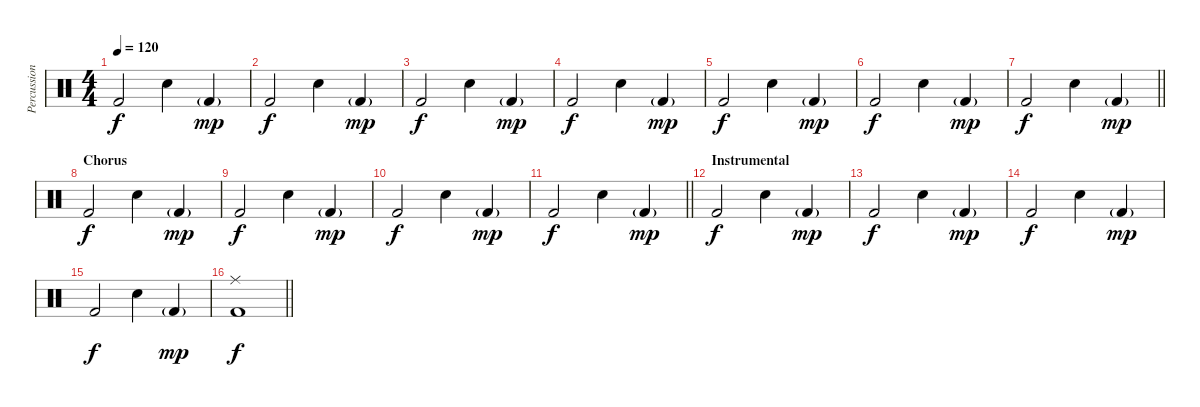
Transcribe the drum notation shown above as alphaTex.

\track ("Percussion" "Percussion") {instrument percussion}
\staff {score}
\articulation defaults
\ts (4 4)
\tempo 120
\clef neutral
\ks c "Kick (hit) 2".2{dy f} "Snare (hit) 2".4 "Kick (hit) 2"{g}.4{dy mp}
|
"Kick (hit) 2".2{dy f} "Snare (hit) 2".4 "Kick (hit) 2"{g}.4{dy mp} |
"Kick (hit) 2".2{dy f} "Snare (hit) 2".4 "Kick (hit) 2"{g}.4{dy mp} |
"Kick (hit) 2".2{dy f} "Snare (hit) 2".4 "Kick (hit) 2"{g}.4{dy mp} |
"Kick (hit) 2".2{dy f} "Snare (hit) 2".4 "Kick (hit) 2"{g}.4{dy mp} |
"Kick (hit) 2".2{dy f} "Snare (hit) 2".4 "Kick (hit) 2"{g}.4{dy mp} |
\barLineRight lightlight "Kick (hit) 2".2{dy f} "Snare (hit) 2".4 "Kick (hit) 2"{g}.4{dy mp}
|
\section ("" "Chorus")
"Kick (hit) 2".2{dy f} "Snare (hit) 2".4 "Kick (hit) 2"{g}.4{dy mp} |
"Kick (hit) 2".2{dy f} "Snare (hit) 2".4 "Kick (hit) 2"{g}.4{dy mp} |
"Kick (hit) 2".2{dy f} "Snare (hit) 2".4 "Kick (hit) 2"{g}.4{dy mp} |
\barLineRight lightlight "Kick (hit) 2".2{dy f} "Snare (hit) 2".4 "Kick (hit) 2"{g}.4{dy mp}
|
\section ("" "Instrumental")
"Kick (hit) 2".2{dy f} "Snare (hit) 2".4 "Kick (hit) 2"{g}.4{dy mp} |
"Kick (hit) 2".2{dy f} "Snare (hit) 2".4 "Kick (hit) 2"{g}.4{dy mp} |
"Kick (hit) 2".2{dy f} "Snare (hit) 2".4 "Kick (hit) 2"{g}.4{dy mp} |
"Kick (hit) 2".2{dy f} "Snare (hit) 2".4 "Kick (hit) 2"{g}.4{dy mp} |
\barLineRight lightlight
("Ride (middle)" "Kick (hit) 2").1{dy f}
